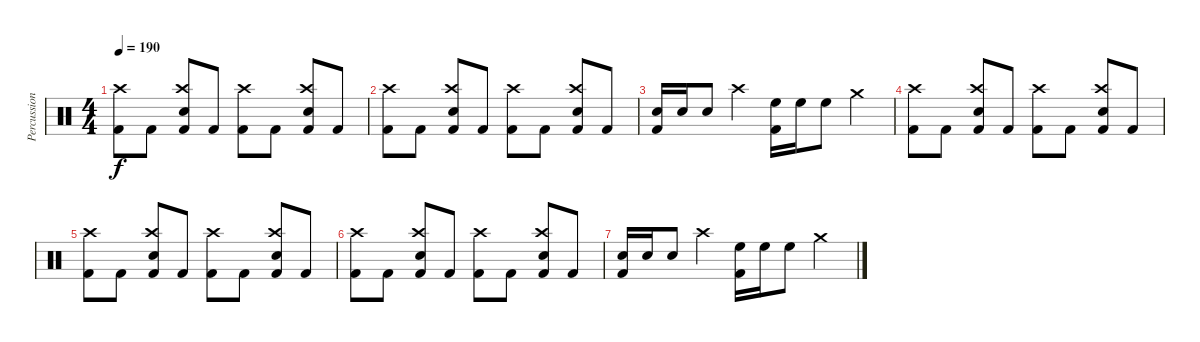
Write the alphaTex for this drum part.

\track ("Percussion" "Percussion") {instrument percussion}
\staff {score}
\articulation defaults
\ts (4 4)
\tempo 190
\clef neutral
\ks c
("Kick (hit) 2" "Crash high (hit)").8{dy f} "Kick (hit) 2".8 ("Kick (hit) 2" "Electric Snare (hit)" "Crash high (hit)").8 "Kick (hit) 2".8 ("Kick (hit) 2" "Crash high (hit)").8 "Kick (hit) 2".8 ("Kick (hit) 2" "Electric Snare (hit)" "Crash high (hit)").8 "Kick (hit) 2".8 |
("Kick (hit) 2" "Crash high (hit)").8 "Kick (hit) 2".8 ("Kick (hit) 2" "Electric Snare (hit)" "Crash high (hit)").8 "Kick (hit) 2".8 ("Kick (hit) 2" "Crash high (hit)").8 "Kick (hit) 2".8 ("Kick (hit) 2" "Electric Snare (hit)" "Crash high (hit)").8 "Kick (hit) 2".8 |
("Kick (hit) 2" "Electric Snare (hit)").16 "Electric Snare (hit)".16 "Electric Snare (hit)".8 "Crash high (hit)".4 ("Kick (hit) 2" "High Floor Tom (hit)").16 "High Floor Tom (hit)".16 "High Floor Tom (hit)".8 "Crash medium (hit)".4 |
("Kick (hit) 2" "Crash high (hit)").8 "Kick (hit) 2".8 ("Kick (hit) 2" "Electric Snare (hit)" "Crash high (hit)").8 "Kick (hit) 2".8 ("Kick (hit) 2" "Crash high (hit)").8 "Kick (hit) 2".8 ("Kick (hit) 2" "Electric Snare (hit)" "Crash high (hit)").8 "Kick (hit) 2".8 |
("Kick (hit) 2" "Crash high (hit)").8 "Kick (hit) 2".8 ("Kick (hit) 2" "Electric Snare (hit)" "Crash high (hit)").8 "Kick (hit) 2".8 ("Kick (hit) 2" "Crash high (hit)").8 "Kick (hit) 2".8 ("Kick (hit) 2" "Electric Snare (hit)" "Crash high (hit)").8 "Kick (hit) 2".8 |
("Kick (hit) 2" "Crash high (hit)").8 "Kick (hit) 2".8 ("Kick (hit) 2" "Electric Snare (hit)" "Crash high (hit)").8 "Kick (hit) 2".8 ("Kick (hit) 2" "Crash high (hit)").8 "Kick (hit) 2".8 ("Kick (hit) 2" "Electric Snare (hit)" "Crash high (hit)").8 "Kick (hit) 2".8 |
("Kick (hit) 2" "Electric Snare (hit)").16 "Electric Snare (hit)".16 "Electric Snare (hit)".8 "Crash high (hit)".4 ("Kick (hit) 2" "High Floor Tom (hit)").16 "High Floor Tom (hit)".16 "High Floor Tom (hit)".8 "Crash medium (hit)".4
